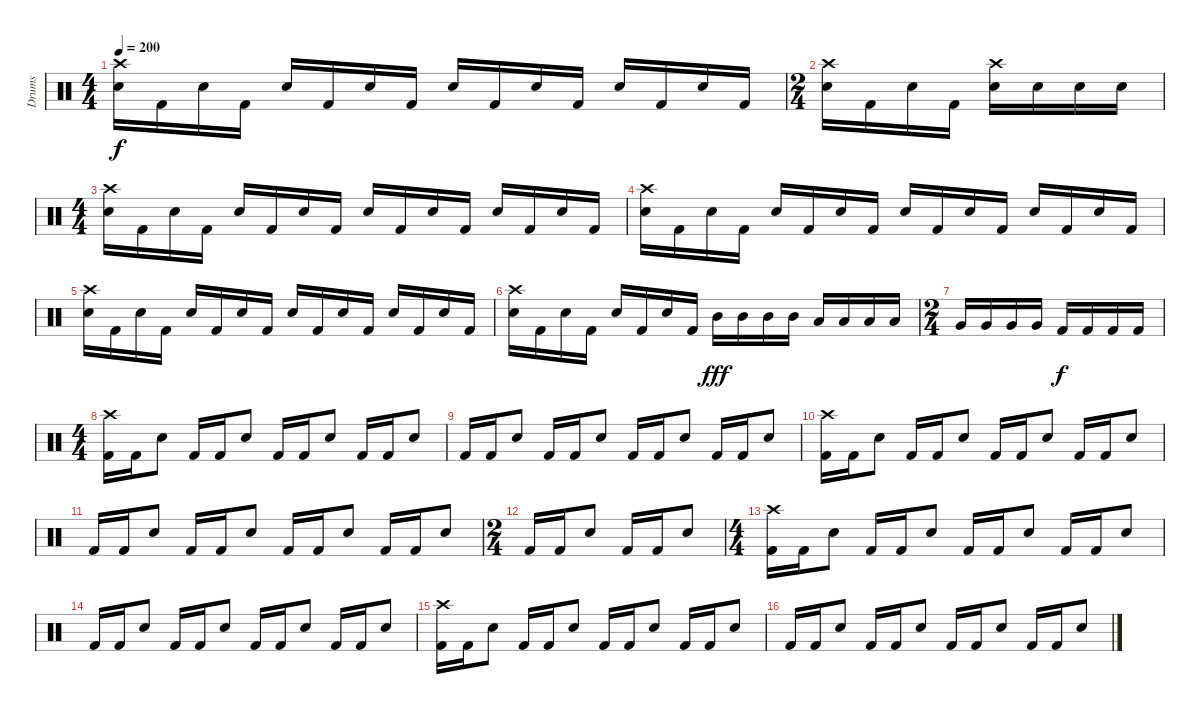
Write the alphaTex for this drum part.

\track ("Drums" "Drums") {instrument percussion}
\staff {score}
\articulation defaults
\ts (4 4)
\tempo 200
\clef neutral
\ks c
("Crash high (hit)" "Snare (hit) 2").16{dy f} "Kick (hit) 2".16 "Snare (hit) 2".16 "Kick (hit) 2".16 "Snare (hit) 2".16 "Kick (hit) 2".16 "Snare (hit) 2".16 "Kick (hit) 2".16 "Snare (hit) 2".16 "Kick (hit) 2".16 "Snare (hit) 2".16 "Kick (hit) 2".16 "Snare (hit) 2".16 "Kick (hit) 2".16 "Snare (hit) 2".16 "Kick (hit) 2".16 |
\ts (2 4)
("Crash high (hit)" "Snare (hit) 2").16 "Kick (hit) 2".16 "Snare (hit) 2".16 "Kick (hit) 2".16 ("Crash high (hit)" "Snare (hit) 2").16 "Snare (hit) 2".16 "Snare (hit) 2".16 "Snare (hit) 2".16 |
\ts (4 4)
("Crash high (hit)" "Snare (hit) 2").16 "Kick (hit) 2".16 "Snare (hit) 2".16 "Kick (hit) 2".16 "Snare (hit) 2".16 "Kick (hit) 2".16 "Snare (hit) 2".16 "Kick (hit) 2".16 "Snare (hit) 2".16 "Kick (hit) 2".16 "Snare (hit) 2".16 "Kick (hit) 2".16 "Snare (hit) 2".16 "Kick (hit) 2".16 "Snare (hit) 2".16 "Kick (hit) 2".16 |
("Crash high (hit)" "Snare (hit) 2").16 "Kick (hit) 2".16 "Snare (hit) 2".16 "Kick (hit) 2".16 "Snare (hit) 2".16 "Kick (hit) 2".16 "Snare (hit) 2".16 "Kick (hit) 2".16 "Snare (hit) 2".16 "Kick (hit) 2".16 "Snare (hit) 2".16 "Kick (hit) 2".16 "Snare (hit) 2".16 "Kick (hit) 2".16 "Snare (hit) 2".16 "Kick (hit) 2".16 |
("Crash high (hit)" "Snare (hit) 2").16 "Kick (hit) 2".16 "Snare (hit) 2".16 "Kick (hit) 2".16 "Snare (hit) 2".16 "Kick (hit) 2".16 "Snare (hit) 2".16 "Kick (hit) 2".16 "Snare (hit) 2".16 "Kick (hit) 2".16 "Snare (hit) 2".16 "Kick (hit) 2".16 "Snare (hit) 2".16 "Kick (hit) 2".16 "Snare (hit) 2".16 "Kick (hit) 2".16 |
("Crash high (hit)" "Snare (hit) 2").16 "Kick (hit) 2".16 "Snare (hit) 2".16 "Kick (hit) 2".16 "Snare (hit) 2".16 "Kick (hit) 2".16 "Snare (hit) 2".16 "Kick (hit) 2".16 "Mid Tom (hit)".16{dy fff} "Mid Tom (hit)".16 "Mid Tom (hit)".16 "Mid Tom (hit)".16 "Low Tom (hit)".16 "Low Tom (hit)".16 "Low Tom (hit)".16 "Low Tom (hit)".16 |
\ts (2 4)
"Very Low Tom (hit)".16 "Very Low Tom (hit)".16 "Very Low Tom (hit)".16 "Very Low Tom (hit)".16 "Kick (hit) 2".16{dy f} "Kick (hit) 2".16 "Kick (hit) 2".16 "Kick (hit) 2".16 |
\ts (4 4)
("Crash high (hit)" "Kick (hit) 2").16 "Kick (hit) 2".16 "Snare (hit) 2".8 "Kick (hit) 2".16 "Kick (hit) 2".16 "Snare (hit) 2".8 "Kick (hit) 2".16 "Kick (hit) 2".16 "Snare (hit) 2".8 "Kick (hit) 2".16 "Kick (hit) 2".16 "Snare (hit) 2".8 |
"Kick (hit) 2".16 "Kick (hit) 2".16 "Snare (hit) 2".8 "Kick (hit) 2".16 "Kick (hit) 2".16 "Snare (hit) 2".8 "Kick (hit) 2".16 "Kick (hit) 2".16 "Snare (hit) 2".8 "Kick (hit) 2".16 "Kick (hit) 2".16 "Snare (hit) 2".8 |
("Crash high (hit)" "Kick (hit) 2").16 "Kick (hit) 2".16 "Snare (hit) 2".8 "Kick (hit) 2".16 "Kick (hit) 2".16 "Snare (hit) 2".8 "Kick (hit) 2".16 "Kick (hit) 2".16 "Snare (hit) 2".8 "Kick (hit) 2".16 "Kick (hit) 2".16 "Snare (hit) 2".8 |
"Kick (hit) 2".16 "Kick (hit) 2".16 "Snare (hit) 2".8 "Kick (hit) 2".16 "Kick (hit) 2".16 "Snare (hit) 2".8 "Kick (hit) 2".16 "Kick (hit) 2".16 "Snare (hit) 2".8 "Kick (hit) 2".16 "Kick (hit) 2".16 "Snare (hit) 2".8 |
\ts (2 4)
"Kick (hit) 2".16 "Kick (hit) 2".16 "Snare (hit) 2".8 "Kick (hit) 2".16 "Kick (hit) 2".16 "Snare (hit) 2".8 |
\ts (4 4)
("Crash high (hit)" "Kick (hit) 2").16 "Kick (hit) 2".16 "Snare (hit) 2".8 "Kick (hit) 2".16 "Kick (hit) 2".16 "Snare (hit) 2".8 "Kick (hit) 2".16 "Kick (hit) 2".16 "Snare (hit) 2".8 "Kick (hit) 2".16 "Kick (hit) 2".16 "Snare (hit) 2".8 |
"Kick (hit) 2".16 "Kick (hit) 2".16 "Snare (hit) 2".8 "Kick (hit) 2".16 "Kick (hit) 2".16 "Snare (hit) 2".8 "Kick (hit) 2".16 "Kick (hit) 2".16 "Snare (hit) 2".8 "Kick (hit) 2".16 "Kick (hit) 2".16 "Snare (hit) 2".8 |
("Crash high (hit)" "Kick (hit) 2").16 "Kick (hit) 2".16 "Snare (hit) 2".8 "Kick (hit) 2".16 "Kick (hit) 2".16 "Snare (hit) 2".8 "Kick (hit) 2".16 "Kick (hit) 2".16 "Snare (hit) 2".8 "Kick (hit) 2".16 "Kick (hit) 2".16 "Snare (hit) 2".8 |
"Kick (hit) 2".16 "Kick (hit) 2".16 "Snare (hit) 2".8 "Kick (hit) 2".16 "Kick (hit) 2".16 "Snare (hit) 2".8 "Kick (hit) 2".16 "Kick (hit) 2".16 "Snare (hit) 2".8 "Kick (hit) 2".16 "Kick (hit) 2".16 "Snare (hit) 2".8
